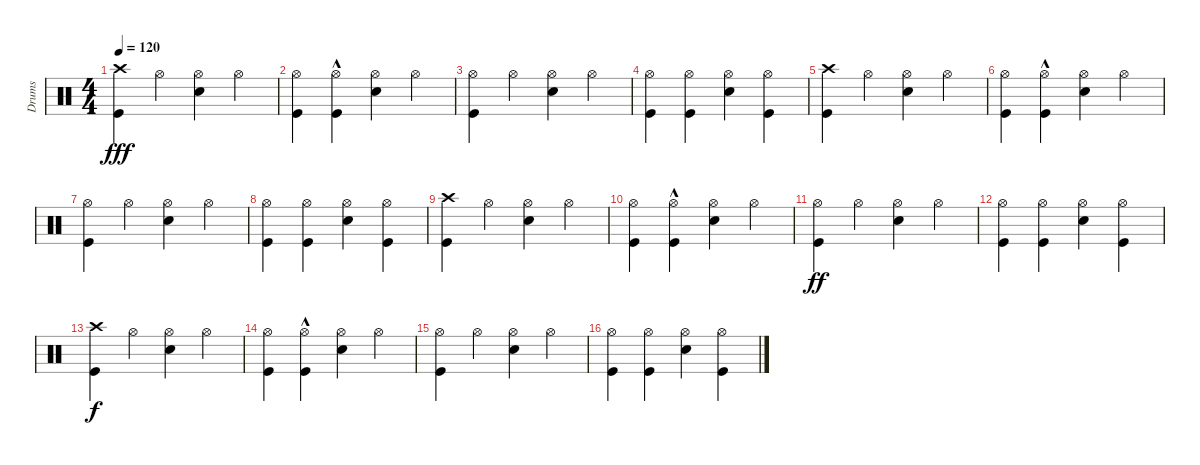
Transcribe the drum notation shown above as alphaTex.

\track ("Drums" "Drums") {instrument percussion}
\staff {score}
\articulation defaults
\ts (4 4)
\tempo 120
\clef neutral
\ks c
("Kick (hit)" "Crash high (hit)").4{dy fff} "Hi-Hat (open)".4 ("Snare (hit) 2" "Hi-Hat (open)").4 "Hi-Hat (open)".4 |
("Kick (hit)" "Hi-Hat (open)").4 ("Kick (hit)"{hac} "Hi-Hat (open)").4 ("Snare (hit) 2" "Hi-Hat (open)").4 "Hi-Hat (open)".4 |
("Kick (hit)" "Hi-Hat (open)").4 "Hi-Hat (open)".4 ("Snare (hit) 2" "Hi-Hat (open)").4 "Hi-Hat (open)".4 |
("Kick (hit)" "Hi-Hat (open)").4 ("Kick (hit)" "Hi-Hat (open)").4 ("Snare (hit) 2" "Hi-Hat (open)").4 ("Kick (hit)" "Hi-Hat (open)").4 |
("Kick (hit)" "Crash high (hit)").4 "Hi-Hat (open)".4 ("Snare (hit) 2" "Hi-Hat (open)").4 "Hi-Hat (open)".4 |
("Kick (hit)" "Hi-Hat (open)").4 ("Kick (hit)"{hac} "Hi-Hat (open)").4 ("Snare (hit) 2" "Hi-Hat (open)").4 "Hi-Hat (open)".4 |
("Kick (hit)" "Hi-Hat (open)").4 "Hi-Hat (open)".4 ("Snare (hit) 2" "Hi-Hat (open)").4 "Hi-Hat (open)".4 |
("Kick (hit)" "Hi-Hat (open)").4 ("Kick (hit)" "Hi-Hat (open)").4 ("Snare (hit) 2" "Hi-Hat (open)").4 ("Kick (hit)" "Hi-Hat (open)").4 |
("Kick (hit)" "Crash high (hit)").4 "Hi-Hat (open)".4 ("Snare (hit) 2" "Hi-Hat (open)").4 "Hi-Hat (open)".4 |
("Kick (hit)" "Hi-Hat (open)").4 ("Kick (hit)"{hac} "Hi-Hat (open)").4 ("Snare (hit) 2" "Hi-Hat (open)").4 "Hi-Hat (open)".4 |
("Kick (hit)" "Hi-Hat (open)").4{dy ff} "Hi-Hat (open)".4 ("Snare (hit) 2" "Hi-Hat (open)").4 "Hi-Hat (open)".4 |
("Kick (hit)" "Hi-Hat (open)").4 ("Kick (hit)" "Hi-Hat (open)").4 ("Snare (hit) 2" "Hi-Hat (open)").4 ("Kick (hit)" "Hi-Hat (open)").4 |
("Kick (hit)" "Crash high (hit)").4{dy f} "Hi-Hat (open)".4 ("Snare (hit) 2" "Hi-Hat (open)").4 "Hi-Hat (open)".4 |
("Kick (hit)" "Hi-Hat (open)").4 ("Kick (hit)"{hac} "Hi-Hat (open)").4 ("Snare (hit) 2" "Hi-Hat (open)").4 "Hi-Hat (open)".4 |
("Kick (hit)" "Hi-Hat (open)").4 "Hi-Hat (open)".4 ("Snare (hit) 2" "Hi-Hat (open)").4 "Hi-Hat (open)".4 |
("Kick (hit)" "Hi-Hat (open)").4 ("Kick (hit)" "Hi-Hat (open)").4 ("Snare (hit) 2" "Hi-Hat (open)").4 ("Kick (hit)" "Hi-Hat (open)").4
